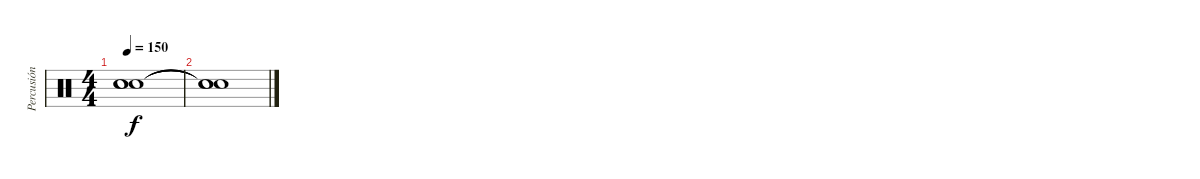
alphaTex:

\track ("Percusión" "Percusión") {instrument percussion}
\staff {score}
\articulation defaults
\ts (4 4)
\tempo 150
\clef neutral
\ks c
("Snare (hit)"{t} "Snare (hit)"{t} "Snare (hit)"{t}).1{dy f} |
("Snare (hit)"{t} "Snare (hit)"{t} "Snare (hit)"{t}).1
